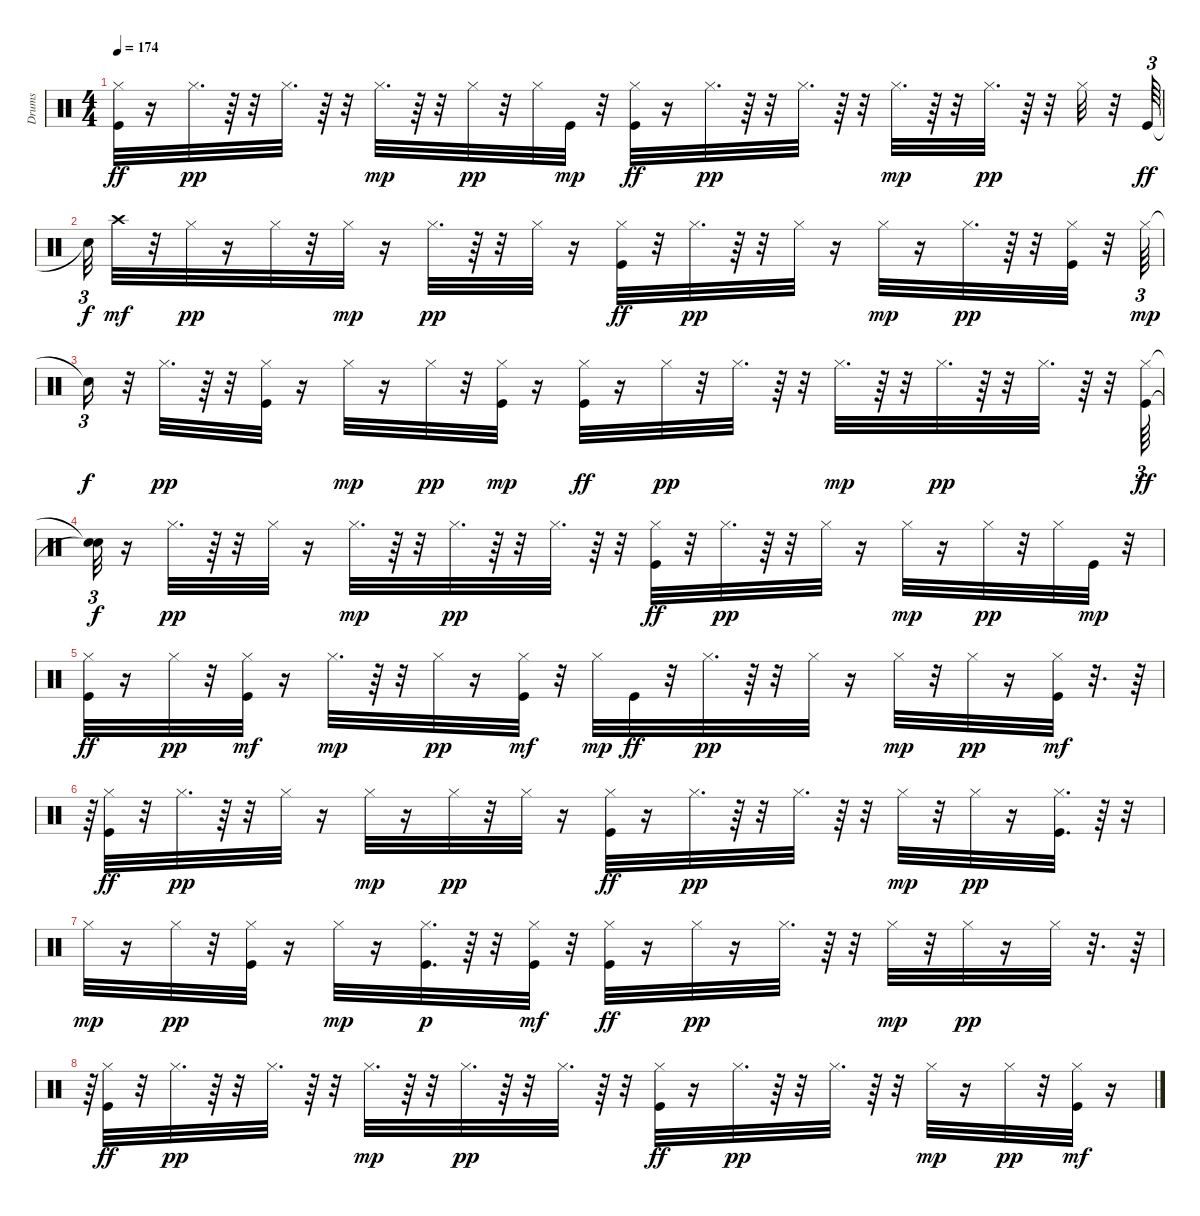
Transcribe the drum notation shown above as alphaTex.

\track ("Drums" "Drums") {instrument percussion}
\staff {score}
\articulation defaults
\ts (4 4)
\tempo 174
\clef neutral
\ks c
("Hi-Hat (closed)" "Kick (hit)").32{dy ff} r.16 "Hi-Hat (closed)".32{d dy pp} r.64 r.32 "Hi-Hat (closed)".32{d} r.64 r.32 "Hi-Hat (closed)".32{d dy mp} r.64 r.32 "Hi-Hat (closed)".32{dy pp} r.32 "Hi-Hat (closed)".32 "Kick (hit)".32{dy mp} r.32 ("Hi-Hat (closed)" "Kick (hit)").32{dy ff} r.16 "Hi-Hat (closed)".32{d dy pp} r.64 r.32 "Hi-Hat (closed)".32{d} r.64 r.32 "Hi-Hat (closed)".32{d dy mp} r.64 r.32 "Hi-Hat (closed)".32{d dy pp} r.64 r.32 "Hi-Hat (closed)".32 r.32 "Kick (hit)".64{tu (3 2) dy ff} |
"Snare (hit)"{t}.32{tu (3 2) dy f} "Crash high (hit)".32{dy mf} r.32 "Hi-Hat (closed)".32{dy pp} r.16 "Hi-Hat (closed)".32 r.32 "Hi-Hat (closed)".32{dy mp} r.16 "Hi-Hat (closed)".32{d dy pp} r.64 r.32 "Hi-Hat (closed)".32 r.16 ("Hi-Hat (closed)" "Kick (hit)").32{dy ff} r.32 "Hi-Hat (closed)".32{d dy pp} r.64 r.32 "Hi-Hat (closed)".32 r.16 "Hi-Hat (closed)".32{dy mp} r.16 "Hi-Hat (closed)".32{d dy pp} r.64 r.32 ("Hi-Hat (closed)" "Kick (hit)").32 r.32 "Hi-Hat (closed)".64{tu (3 2) dy mp} |
"Snare (hit)"{t}.16{tu (3 2) dy f} r.32 "Hi-Hat (closed)".32{d dy pp} r.64 r.32 ("Hi-Hat (closed)" "Kick (hit)").32 r.16 "Hi-Hat (closed)".32{dy mp} r.16 "Hi-Hat (closed)".32{dy pp} r.32 ("Hi-Hat (closed)" "Kick (hit)").32{dy mp} r.16 ("Hi-Hat (closed)" "Kick (hit)").32{dy ff} r.16 "Hi-Hat (closed)".32{dy pp} r.32 "Hi-Hat (closed)".32{d} r.64 r.32 "Hi-Hat (closed)".32{d dy mp} r.64 r.32 "Hi-Hat (closed)".32{d dy pp} r.64 r.32 "Hi-Hat (closed)".32{d} r.64 r.32 ("Hi-Hat (closed)" "Kick (hit)").64{tu (3 2) dy ff} |
("Snare (hit)"{t} "Snare (hit)"{t}).32{tu (3 2) dy f} r.16 "Hi-Hat (closed)".32{d dy pp} r.64 r.32 "Hi-Hat (closed)".32 r.16 "Hi-Hat (closed)".32{d dy mp} r.64 r.32 "Hi-Hat (closed)".32{d dy pp} r.64 r.32 "Hi-Hat (closed)".32{d} r.64 r.32 ("Hi-Hat (closed)" "Kick (hit)").32{dy ff} r.32 "Hi-Hat (closed)".32{d dy pp} r.64 r.32 "Hi-Hat (closed)".32 r.16 "Hi-Hat (closed)".32{dy mp} r.16 "Hi-Hat (closed)".32{dy pp} r.32 "Hi-Hat (closed)".32 "Kick (hit)".32{dy mp} r.32 |
("Hi-Hat (closed)" "Kick (hit)").32{dy ff} r.16 "Hi-Hat (closed)".32{dy pp} r.32 ("Hi-Hat (closed)" "Kick (hit)").32{dy mf} r.16 "Hi-Hat (closed)".32{d dy mp} r.64 r.32 "Hi-Hat (closed)".32{dy pp} r.16 ("Hi-Hat (closed)" "Kick (hit)").32{dy mf} r.32 "Hi-Hat (closed)".32{dy mp} "Kick (hit)".32{dy ff} r.32 "Hi-Hat (closed)".32{d dy pp} r.64 r.32 "Hi-Hat (closed)".32 r.16 "Hi-Hat (closed)".32{dy mp} r.32 "Hi-Hat (closed)".32{dy pp} r.16 ("Hi-Hat (closed)" "Kick (hit)").32{dy mf} r.32{d} r.64 |
r.64{tu (3 2)} ("Hi-Hat (closed)" "Kick (hit)").32{dy ff} r.32 "Hi-Hat (closed)".32{d dy pp} r.64 r.32 "Hi-Hat (closed)".32 r.16 "Hi-Hat (closed)".32{dy mp} r.16 "Hi-Hat (closed)".32{dy pp} r.32 "Hi-Hat (closed)".32 r.16 ("Hi-Hat (closed)" "Kick (hit)").32{dy ff} r.16 "Hi-Hat (closed)".32{d dy pp} r.64 r.32 "Hi-Hat (closed)".32{d} r.64 r.32 "Hi-Hat (closed)".32{dy mp} r.32 "Hi-Hat (closed)".32{dy pp} r.16 ("Hi-Hat (closed)" "Kick (hit)").32{d} r.64 r.32 |
"Hi-Hat (closed)".32{dy mp} r.16 "Hi-Hat (closed)".32{dy pp} r.32 ("Hi-Hat (closed)" "Kick (hit)").32 r.16 "Hi-Hat (closed)".32{dy mp} r.16 ("Hi-Hat (closed)" "Kick (hit)").32{d dy p} r.64 r.32 ("Hi-Hat (closed)" "Kick (hit)").32{dy mf} r.32 ("Hi-Hat (closed)" "Kick (hit)").32{dy ff} r.16 "Hi-Hat (closed)".32{dy pp} r.16 "Hi-Hat (closed)".32{d} r.64 r.32 "Hi-Hat (closed)".32{dy mp} r.32 "Hi-Hat (closed)".32{dy pp} r.16 "Hi-Hat (closed)".32 r.32{d} r.64 |
r.64{tu (3 2)} ("Hi-Hat (closed)" "Kick (hit)").32{dy ff} r.32 "Hi-Hat (closed)".32{d dy pp} r.64 r.32 "Hi-Hat (closed)".32{d} r.64 r.32 "Hi-Hat (closed)".32{d dy mp} r.64 r.32 "Hi-Hat (closed)".32{d dy pp} r.64 r.32 "Hi-Hat (closed)".32{d} r.64 r.32 ("Hi-Hat (closed)" "Kick (hit)").32{dy ff} r.16 "Hi-Hat (closed)".32{d dy pp} r.64 r.32 "Hi-Hat (closed)".32{d} r.64 r.32 "Hi-Hat (closed)".32{dy mp} r.16 "Hi-Hat (closed)".32{dy pp} r.32 ("Hi-Hat (closed)" "Kick (hit)").32{dy mf} r.16
